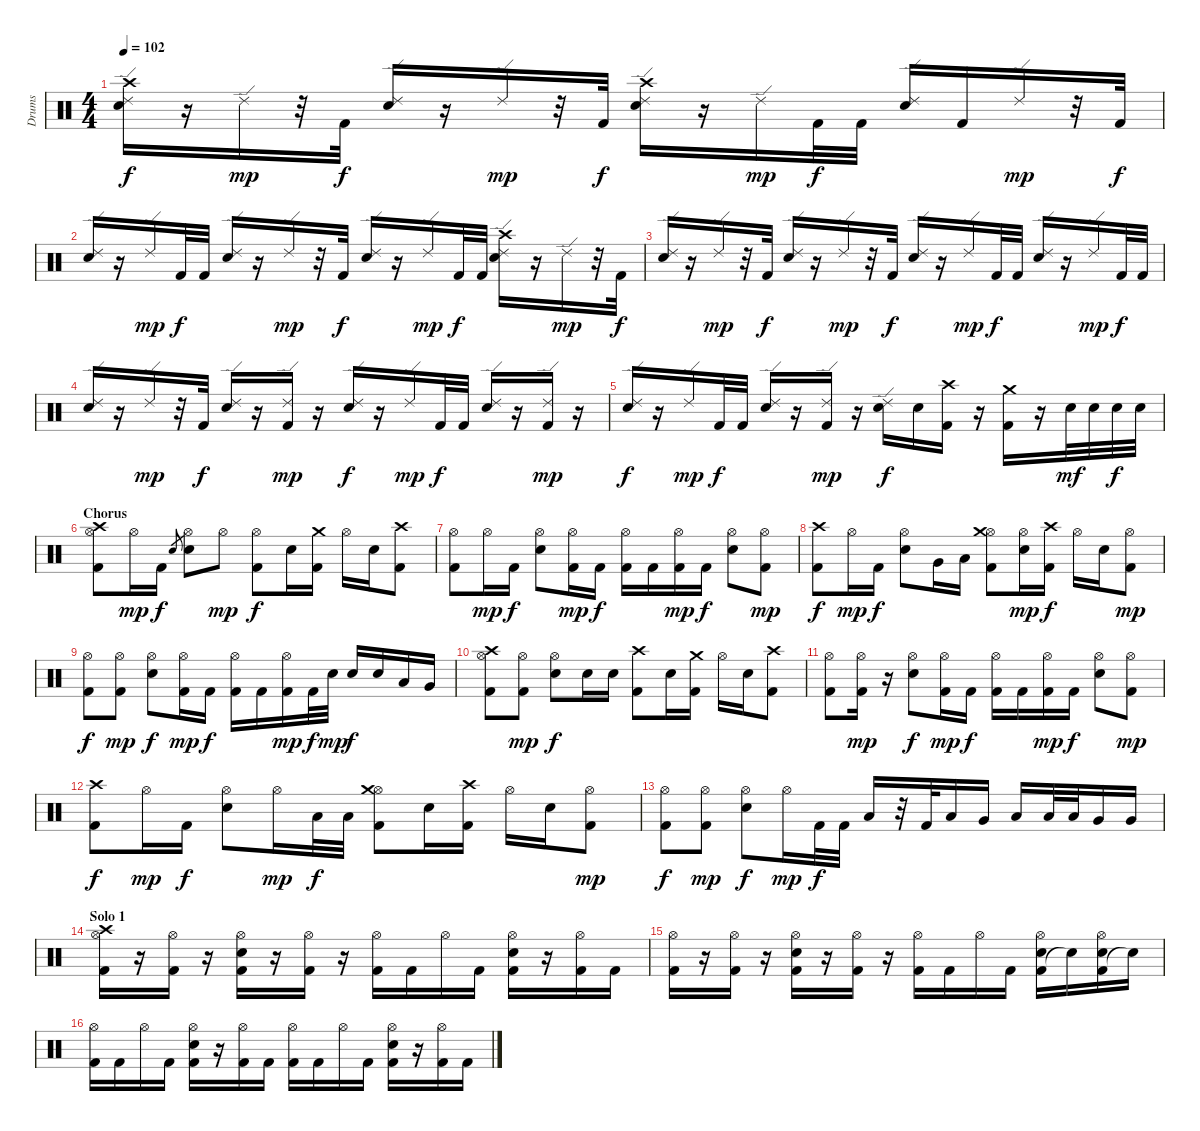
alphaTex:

\track ("Drums" "Drums") {instrument percussion}
\staff {score}
\articulation defaults
\ts (4 4)
\tempo 102
\clef neutral
\ks c
("Ride (edge) 2" "Electric Snare (hit)" "Crash high (hit)").16{dy f} r.16 "Ride (edge) 2".16{dy mp} r.32 "Kick (hit) 2".32{dy f} ("Ride (edge) 2" "Electric Snare (hit)").16 r.16 "Ride (edge) 2".16{dy mp} r.32 "Kick (hit) 2".32{dy f} ("Ride (edge) 2" "Electric Snare (hit)" "Crash high (hit)").16 r.16 "Ride (edge) 2".16{dy mp} "Kick (hit) 2".32{dy f} "Kick (hit) 2".32 ("Ride (edge) 2" "Electric Snare (hit)").16 "Kick (hit) 2".16 "Ride (edge) 2".16{dy mp} r.32 "Kick (hit) 2".32{dy f} |
("Ride (edge) 2" "Electric Snare (hit)").16 r.16 "Ride (edge) 2".16{dy mp} "Kick (hit) 2".32{dy f} "Kick (hit) 2".32 ("Ride (edge) 2" "Electric Snare (hit)").16 r.16 "Ride (edge) 2".16{dy mp} r.32 "Kick (hit) 2".32{dy f} ("Ride (edge) 2" "Electric Snare (hit)").16 r.16 "Ride (edge) 2".16{dy mp} "Kick (hit) 2".32{dy f} "Kick (hit) 2".32 ("Ride (edge) 2" "Electric Snare (hit)" "Crash high (hit)").16 r.16 "Ride (edge) 2".16{dy mp} r.32 "Kick (hit) 2".32{dy f} |
("Ride (edge) 2" "Electric Snare (hit)").16 r.16 "Ride (edge) 2".16{dy mp} r.32 "Kick (hit) 2".32{dy f} ("Ride (edge) 2" "Electric Snare (hit)").16 r.16 "Ride (edge) 2".16{dy mp} r.32 "Kick (hit) 2".32{dy f} ("Ride (edge) 2" "Electric Snare (hit)").16 r.16 "Ride (edge) 2".16{dy mp} "Kick (hit) 2".32{dy f} "Kick (hit) 2".32 ("Ride (edge) 2" "Electric Snare (hit)").16 r.16 "Ride (edge) 2".16{dy mp} "Kick (hit) 2".32{dy f} "Kick (hit) 2".32 |
("Ride (edge) 2" "Electric Snare (hit)").16 r.16 "Ride (edge) 2".16{dy mp} r.32 "Kick (hit) 2".32{dy f} ("Ride (edge) 2" "Electric Snare (hit)").16 r.16 ("Kick (hit) 2" "Ride (edge) 2").16{dy mp} r.16 ("Ride (edge) 2" "Electric Snare (hit)").16{dy f} r.16 "Ride (edge) 2".16{dy mp} "Kick (hit) 2".32{dy f} "Kick (hit) 2".32 ("Ride (edge) 2" "Electric Snare (hit)").16 r.16 ("Kick (hit) 2" "Ride (edge) 2").16{dy mp} r.16 |
("Ride (edge) 2" "Electric Snare (hit)").16{dy f} r.16 "Ride (edge) 2".16{dy mp} "Kick (hit) 2".32{dy f} "Kick (hit) 2".32 ("Ride (edge) 2" "Electric Snare (hit)").16 r.16 ("Kick (hit) 2" "Ride (edge) 2").16{dy mp} r.16 ("Ride (edge) 2" "Electric Snare (hit)").16{dy f} "Electric Snare (hit)".16 ("Kick (hit) 2" "Crash high (hit)").16 r.16 ("Kick (hit) 2" "Crash medium (hit)").16 r.16 "Electric Snare (hit)".32{dy mf} "Electric Snare (hit)".32 "Electric Snare (hit)".32{dy f} "Electric Snare (hit)".32 |
\section ("" "Chorus")
("Kick (hit) 2" "Hi-Hat (open)" "Crash high (hit)").8 "Hi-Hat (open)".16{dy mp} "Kick (hit) 2".16{dy f} "Electric Snare (hit)".8{gr} ("Electric Snare (hit)" "Hi-Hat (open)").8 "Hi-Hat (open)".8{dy mp} ("Kick (hit) 2" "Hi-Hat (open)").8{dy f} "Electric Snare (hit)".16 ("Kick (hit) 2" "Crash medium (hit)").16 "Hi-Hat (open)".16 "Electric Snare (hit)".16 ("Kick (hit) 2" "Crash high (hit)").8 |
("Kick (hit) 2" "Hi-Hat (open)").8 "Hi-Hat (open)".16{dy mp} "Kick (hit) 2".16{dy f} ("Electric Snare (hit)" "Hi-Hat (open)").8 ("Kick (hit) 2" "Hi-Hat (open)").16{dy mp} "Kick (hit) 2".16{dy f} ("Kick (hit) 2" "Hi-Hat (open)").16 "Kick (hit) 2".16 ("Kick (hit) 2" "Hi-Hat (open)").16{dy mp} "Kick (hit) 2".16{dy f} ("Electric Snare (hit)" "Hi-Hat (open)").8 ("Kick (hit) 2" "Hi-Hat (open)").8{dy mp} |
("Kick (hit) 2" "Crash high (hit)").8{dy f} "Hi-Hat (open)".16{dy mp} "Kick (hit) 2".16{dy f} ("Electric Snare (hit)" "Hi-Hat (open)").8 "Very Low Tom (hit)".16 "Low Floor Tom (hit)".16 ("Kick (hit) 2" "Hi-Hat (open)" "Crash medium (hit)").8 ("Electric Snare (hit)" "Hi-Hat (open)").16{dy mp} ("Kick (hit) 2" "Crash high (hit)").16{dy f} "Hi-Hat (open)".16 "Electric Snare (hit)".16 ("Kick (hit) 2" "Hi-Hat (open)").8{dy mp} |
("Kick (hit) 2" "Hi-Hat (open)").8{dy f} ("Kick (hit) 2" "Hi-Hat (open)").8{dy mp} ("Electric Snare (hit)" "Hi-Hat (open)").8{dy f} ("Kick (hit) 2" "Hi-Hat (open)").16{dy mp} "Kick (hit) 2".16{dy f} ("Kick (hit) 2" "Hi-Hat (open)").16 "Kick (hit) 2".16 ("Kick (hit) 2" "Hi-Hat (open)").16{dy mp} "Kick (hit) 2".32{dy f} "Electric Snare (hit)".32{dy mp} "Electric Snare (hit)".16{dy f} "Electric Snare (hit)".16 "Low Tom (hit)".16 "Very Low Tom (hit)".16 |
("Kick (hit) 2" "Hi-Hat (open)" "Crash high (hit)").8 ("Kick (hit) 2" "Hi-Hat (open)").8{dy mp} ("Electric Snare (hit)" "Hi-Hat (open)").8{dy f} "Electric Snare (hit)".16 "Electric Snare (hit)".16 ("Kick (hit) 2" "Crash high (hit)").8 "Electric Snare (hit)".16 ("Kick (hit) 2" "Crash medium (hit)").16 "Hi-Hat (open)".16 "Electric Snare (hit)".16 ("Kick (hit) 2" "Crash high (hit)").8 |
("Kick (hit) 2" "Hi-Hat (open)").8 ("Kick (hit) 2" "Hi-Hat (open)").16{dy mp} r.16 ("Electric Snare (hit)" "Hi-Hat (open)").8{dy f} ("Kick (hit) 2" "Hi-Hat (open)").16{dy mp} "Kick (hit) 2".16{dy f} ("Kick (hit) 2" "Hi-Hat (open)").16 "Kick (hit) 2".16 ("Kick (hit) 2" "Hi-Hat (open)").16{dy mp} "Kick (hit) 2".16{dy f} ("Electric Snare (hit)" "Hi-Hat (open)").8 ("Kick (hit) 2" "Hi-Hat (open)").8{dy mp} |
("Kick (hit) 2" "Crash high (hit)").8{dy f} "Hi-Hat (open)".16{dy mp} "Kick (hit) 2".16{dy f} ("Electric Snare (hit)" "Hi-Hat (open)").8 "Hi-Hat (open)".16{dy mp} "Low Floor Tom (hit)".32{dy f} "Low Floor Tom (hit)".32 ("Kick (hit) 2" "Hi-Hat (open)" "Crash medium (hit)").8 "Electric Snare (hit)".16 ("Kick (hit) 2" "Crash high (hit)").16 "Hi-Hat (open)".16 "Electric Snare (hit)".16 ("Kick (hit) 2" "Hi-Hat (open)").8{dy mp} |
("Kick (hit) 2" "Hi-Hat (open)").8{dy f} ("Kick (hit) 2" "Hi-Hat (open)").8{dy mp} ("Electric Snare (hit)" "Hi-Hat (open)").8{dy f} "Hi-Hat (open)".16{dy mp} "Kick (hit) 2".32{dy f} "Kick (hit) 2".32 "Low Tom (hit)".16 r.32 "Kick (hit) 2".32 "Low Tom (hit)".16 "Very Low Tom (hit)".16 "Low Tom (hit)".16 "Low Tom (hit)".32 "Low Tom (hit)".32 "Very Low Tom (hit)".16 "Very Low Tom (hit)".16 |
\section ("" "Solo 1")
("Kick (hit) 2" "Hi-Hat (open)" "Crash high (hit)").16 r.16 ("Kick (hit) 2" "Hi-Hat (open)").16 r.16 ("Kick (hit) 2" "Hi-Hat (open)" "Electric Snare (hit)").16 r.16 ("Kick (hit) 2" "Hi-Hat (open)").16 r.16 ("Kick (hit) 2" "Hi-Hat (open)").16 "Kick (hit) 2".16 "Hi-Hat (open)".16 "Kick (hit) 2".16 ("Kick (hit) 2" "Hi-Hat (open)" "Electric Snare (hit)").16 r.16 ("Kick (hit) 2" "Hi-Hat (open)").16 "Kick (hit) 2".16 |
("Kick (hit) 2" "Hi-Hat (open)").16 r.16 ("Kick (hit) 2" "Hi-Hat (open)").16 r.16 ("Kick (hit) 2" "Hi-Hat (open)" "Electric Snare (hit)").16 r.16 ("Kick (hit) 2" "Hi-Hat (open)").16 r.16 ("Kick (hit) 2" "Hi-Hat (open)").16 "Kick (hit) 2".16 "Hi-Hat (open)".16 "Kick (hit) 2".16 ("Kick (hit) 2" "Hi-Hat (open)" "Electric Snare (hit)").16 "Snare (hit)"{t}.16 ("Kick (hit) 2" "Hi-Hat (open)" "Electric Snare (hit)").16 "Snare (hit)"{t}.16 |
("Kick (hit) 2" "Hi-Hat (open)").16 "Kick (hit) 2".16 "Hi-Hat (open)".16 "Kick (hit) 2".16 ("Kick (hit) 2" "Hi-Hat (open)" "Electric Snare (hit)").16 r.16 ("Kick (hit) 2" "Hi-Hat (open)").16 "Kick (hit) 2".16 ("Kick (hit) 2" "Hi-Hat (open)").16 "Kick (hit) 2".16 "Hi-Hat (open)".16 "Kick (hit) 2".16 ("Kick (hit) 2" "Hi-Hat (open)" "Electric Snare (hit)").16 r.16 ("Kick (hit) 2" "Hi-Hat (open)").16 "Kick (hit) 2".16
